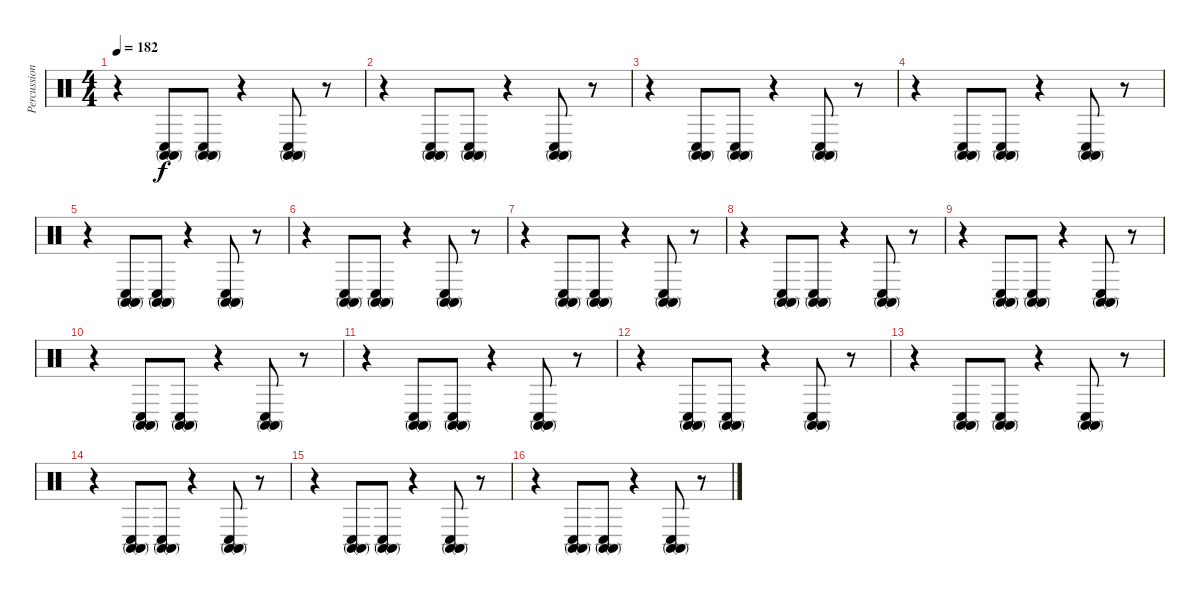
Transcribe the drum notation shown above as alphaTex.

\track ("Percussion" "Percussion") {instrument percussion}
\staff {score}
\articulation defaults
\ts (4 4)
\tempo 182
\clef neutral
\ks c
r.4{dy f} ("Conga high (mute)" "Conga high (mute)" "Conga low (hit)").8 ("Conga high (mute)" "Conga high (mute)" "Conga low (hit)").8 r.4 ("Conga high (mute)" "Conga high (mute)" "Conga low (hit)").8 r.8 |
r.4 ("Conga high (mute)" "Conga high (mute)" "Conga low (hit)").8 ("Conga high (mute)" "Conga high (mute)" "Conga low (hit)").8 r.4 ("Conga high (mute)" "Conga high (mute)" "Conga low (hit)").8 r.8 |
r.4 ("Conga high (mute)" "Conga high (mute)" "Conga low (hit)").8 ("Conga high (mute)" "Conga high (mute)" "Conga low (hit)").8 r.4 ("Conga high (mute)" "Conga high (mute)" "Conga low (hit)").8 r.8 |
r.4 ("Conga high (mute)" "Conga high (mute)" "Conga low (hit)").8 ("Conga high (mute)" "Conga high (mute)" "Conga low (hit)").8 r.4 ("Conga high (mute)" "Conga high (mute)" "Conga low (hit)").8 r.8 |
r.4 ("Conga high (mute)" "Conga high (mute)" "Conga low (hit)").8 ("Conga high (mute)" "Conga high (mute)" "Conga low (hit)").8 r.4 ("Conga high (mute)" "Conga high (mute)" "Conga low (hit)").8 r.8 |
r.4 ("Conga high (mute)" "Conga high (mute)" "Conga low (hit)").8 ("Conga high (mute)" "Conga high (mute)" "Conga low (hit)").8 r.4 ("Conga high (mute)" "Conga high (mute)" "Conga low (hit)").8 r.8 |
r.4 ("Conga high (mute)" "Conga high (mute)" "Conga low (hit)").8 ("Conga high (mute)" "Conga high (mute)" "Conga low (hit)").8 r.4 ("Conga high (mute)" "Conga high (mute)" "Conga low (hit)").8 r.8 |
r.4 ("Conga high (mute)" "Conga high (mute)" "Conga low (hit)").8 ("Conga high (mute)" "Conga high (mute)" "Conga low (hit)").8 r.4 ("Conga high (mute)" "Conga high (mute)" "Conga low (hit)").8 r.8 |
r.4 ("Conga high (mute)" "Conga high (mute)" "Conga low (hit)").8 ("Conga high (mute)" "Conga high (mute)" "Conga low (hit)").8 r.4 ("Conga high (mute)" "Conga high (mute)" "Conga low (hit)").8 r.8 |
r.4 ("Conga high (mute)" "Conga high (mute)" "Conga low (hit)").8 ("Conga high (mute)" "Conga high (mute)" "Conga low (hit)").8 r.4 ("Conga high (mute)" "Conga high (mute)" "Conga low (hit)").8 r.8 |
r.4 ("Conga high (mute)" "Conga high (mute)" "Conga low (hit)").8 ("Conga high (mute)" "Conga high (mute)" "Conga low (hit)").8 r.4 ("Conga high (mute)" "Conga high (mute)" "Conga low (hit)").8 r.8 |
r.4 ("Conga high (mute)" "Conga high (mute)" "Conga low (hit)").8 ("Conga high (mute)" "Conga high (mute)" "Conga low (hit)").8 r.4 ("Conga high (mute)" "Conga high (mute)" "Conga low (hit)").8 r.8 |
r.4 ("Conga high (mute)" "Conga high (mute)" "Conga low (hit)").8 ("Conga high (mute)" "Conga high (mute)" "Conga low (hit)").8 r.4 ("Conga high (mute)" "Conga high (mute)" "Conga low (hit)").8 r.8 |
r.4 ("Conga high (mute)" "Conga high (mute)" "Conga low (hit)").8 ("Conga high (mute)" "Conga high (mute)" "Conga low (hit)").8 r.4 ("Conga high (mute)" "Conga high (mute)" "Conga low (hit)").8 r.8 |
r.4 ("Conga high (mute)" "Conga high (mute)" "Conga low (hit)").8 ("Conga high (mute)" "Conga high (mute)" "Conga low (hit)").8 r.4 ("Conga high (mute)" "Conga high (mute)" "Conga low (hit)").8 r.8 |
r.4 ("Conga high (mute)" "Conga high (mute)" "Conga low (hit)").8 ("Conga high (mute)" "Conga high (mute)" "Conga low (hit)").8 r.4 ("Conga high (mute)" "Conga high (mute)" "Conga low (hit)").8 r.8
